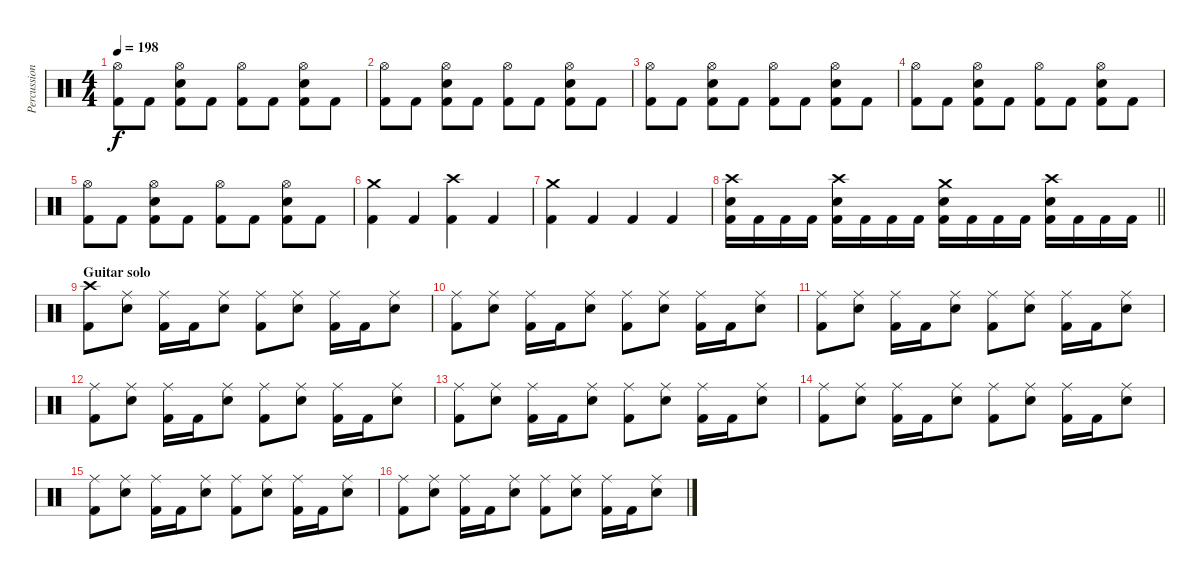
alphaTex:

\track ("Percussion" "Percussion") {instrument percussion}
\staff {score}
\articulation defaults
\ts (4 4)
\tempo 198
\clef neutral
\ks c
("Hi-Hat (open)" "Kick (hit) 2").8{dy f} "Kick (hit) 2".8 ("Hi-Hat (open)" "Electric Snare (hit)" "Kick (hit) 2").8 "Kick (hit) 2".8 ("Hi-Hat (open)" "Kick (hit) 2").8 "Kick (hit) 2".8 ("Hi-Hat (open)" "Electric Snare (hit)" "Kick (hit) 2").8 "Kick (hit) 2".8 |
("Hi-Hat (open)" "Kick (hit) 2").8 "Kick (hit) 2".8 ("Hi-Hat (open)" "Electric Snare (hit)" "Kick (hit) 2").8 "Kick (hit) 2".8 ("Hi-Hat (open)" "Kick (hit) 2").8 "Kick (hit) 2".8 ("Hi-Hat (open)" "Electric Snare (hit)" "Kick (hit) 2").8 "Kick (hit) 2".8 |
("Hi-Hat (open)" "Kick (hit) 2").8 "Kick (hit) 2".8 ("Hi-Hat (open)" "Electric Snare (hit)" "Kick (hit) 2").8 "Kick (hit) 2".8 ("Hi-Hat (open)" "Kick (hit) 2").8 "Kick (hit) 2".8 ("Hi-Hat (open)" "Electric Snare (hit)" "Kick (hit) 2").8 "Kick (hit) 2".8 |
("Hi-Hat (open)" "Kick (hit) 2").8 "Kick (hit) 2".8 ("Hi-Hat (open)" "Electric Snare (hit)" "Kick (hit) 2").8 "Kick (hit) 2".8 ("Hi-Hat (open)" "Kick (hit) 2").8 "Kick (hit) 2".8 ("Hi-Hat (open)" "Electric Snare (hit)" "Kick (hit) 2").8 "Kick (hit) 2".8 |
("Hi-Hat (open)" "Kick (hit) 2").8 "Kick (hit) 2".8 ("Hi-Hat (open)" "Electric Snare (hit)" "Kick (hit) 2").8 "Kick (hit) 2".8 ("Hi-Hat (open)" "Kick (hit) 2").8 "Kick (hit) 2".8 ("Hi-Hat (open)" "Electric Snare (hit)" "Kick (hit) 2").8 "Kick (hit) 2".8 |
("Crash medium (hit)" "Kick (hit) 2").4 "Kick (hit) 2".4 ("Crash high (hit)" "Kick (hit) 2").4 "Kick (hit) 2".4 |
("Crash medium (hit)" "Kick (hit) 2").4 "Kick (hit) 2".4 "Kick (hit) 2".4 "Kick (hit) 2".4 |
\barLineRight lightlight
("Crash high (hit)" "Electric Snare (hit)" "Kick (hit) 2").16 "Kick (hit) 2".16 "Kick (hit) 2".16 "Kick (hit) 2".16 ("Crash high (hit)" "Electric Snare (hit)" "Kick (hit) 2").16 "Kick (hit) 2".16 "Kick (hit) 2".16 "Kick (hit) 2".16 ("Crash medium (hit)" "Electric Snare (hit)" "Kick (hit) 2").16 "Kick (hit) 2".16 "Kick (hit) 2".16 "Kick (hit) 2".16 ("Crash high (hit)" "Electric Snare (hit)" "Kick (hit) 2").16 "Kick (hit) 2".16 "Kick (hit) 2".16 "Kick (hit) 2".16 |
\section ("" "Guitar solo")
("Crash high (hit)" "Kick (hit) 2").8 ("Ride (middle)" "Electric Snare (hit)").8 ("Ride (middle)" "Kick (hit) 2").16 "Kick (hit) 2".16 ("Ride (middle)" "Electric Snare (hit)").8 ("Ride (middle)" "Kick (hit) 2").8 ("Ride (middle)" "Electric Snare (hit)").8 ("Ride (middle)" "Kick (hit) 2").16 "Kick (hit) 2".16 ("Ride (middle)" "Electric Snare (hit)").8 |
("Ride (middle)" "Kick (hit) 2").8 ("Ride (middle)" "Electric Snare (hit)").8 ("Ride (middle)" "Kick (hit) 2").16 "Kick (hit) 2".16 ("Ride (middle)" "Electric Snare (hit)").8 ("Ride (middle)" "Kick (hit) 2").8 ("Ride (middle)" "Electric Snare (hit)").8 ("Ride (middle)" "Kick (hit) 2").16 "Kick (hit) 2".16 ("Ride (middle)" "Electric Snare (hit)").8 |
("Ride (middle)" "Kick (hit) 2").8 ("Ride (middle)" "Electric Snare (hit)").8 ("Ride (middle)" "Kick (hit) 2").16 "Kick (hit) 2".16 ("Ride (middle)" "Electric Snare (hit)").8 ("Ride (middle)" "Kick (hit) 2").8 ("Ride (middle)" "Electric Snare (hit)").8 ("Ride (middle)" "Kick (hit) 2").16 "Kick (hit) 2".16 ("Ride (middle)" "Electric Snare (hit)").8 |
("Ride (middle)" "Kick (hit) 2").8 ("Ride (middle)" "Electric Snare (hit)").8 ("Ride (middle)" "Kick (hit) 2").16 "Kick (hit) 2".16 ("Ride (middle)" "Electric Snare (hit)").8 ("Ride (middle)" "Kick (hit) 2").8 ("Ride (middle)" "Electric Snare (hit)").8 ("Ride (middle)" "Kick (hit) 2").16 "Kick (hit) 2".16 ("Ride (middle)" "Electric Snare (hit)").8 |
("Ride (middle)" "Kick (hit) 2").8 ("Ride (middle)" "Electric Snare (hit)").8 ("Ride (middle)" "Kick (hit) 2").16 "Kick (hit) 2".16 ("Ride (middle)" "Electric Snare (hit)").8 ("Ride (middle)" "Kick (hit) 2").8 ("Ride (middle)" "Electric Snare (hit)").8 ("Ride (middle)" "Kick (hit) 2").16 "Kick (hit) 2".16 ("Ride (middle)" "Electric Snare (hit)").8 |
("Ride (middle)" "Kick (hit) 2").8 ("Ride (middle)" "Electric Snare (hit)").8 ("Ride (middle)" "Kick (hit) 2").16 "Kick (hit) 2".16 ("Ride (middle)" "Electric Snare (hit)").8 ("Ride (middle)" "Kick (hit) 2").8 ("Ride (middle)" "Electric Snare (hit)").8 ("Ride (middle)" "Kick (hit) 2").16 "Kick (hit) 2".16 ("Ride (middle)" "Electric Snare (hit)").8 |
("Ride (middle)" "Kick (hit) 2").8 ("Ride (middle)" "Electric Snare (hit)").8 ("Ride (middle)" "Kick (hit) 2").16 "Kick (hit) 2".16 ("Ride (middle)" "Electric Snare (hit)").8 ("Ride (middle)" "Kick (hit) 2").8 ("Ride (middle)" "Electric Snare (hit)").8 ("Ride (middle)" "Kick (hit) 2").16 "Kick (hit) 2".16 ("Ride (middle)" "Electric Snare (hit)").8 |
("Ride (middle)" "Kick (hit) 2").8 ("Ride (middle)" "Electric Snare (hit)").8 ("Ride (middle)" "Kick (hit) 2").16 "Kick (hit) 2".16 ("Ride (middle)" "Electric Snare (hit)").8 ("Ride (middle)" "Kick (hit) 2").8 ("Ride (middle)" "Electric Snare (hit)").8 ("Ride (middle)" "Kick (hit) 2").16 "Kick (hit) 2".16 ("Ride (middle)" "Electric Snare (hit)").8
